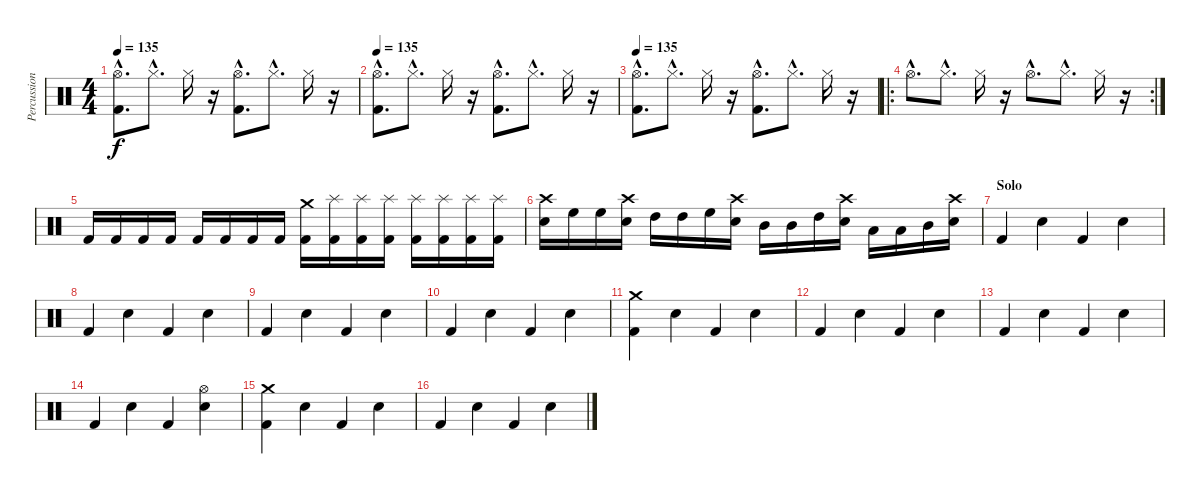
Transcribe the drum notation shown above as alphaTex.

\track ("Percussion" "Percussion") {instrument percussion}
\staff {score}
\articulation defaults
\ts (4 4)
\tempo 135
\clef neutral
\ks c
("Hi-Hat (open)"{hac} "Kick (hit) 2"{hac}).8{d dy f} "Hi-Hat (closed)"{hac}.8{d} "Hi-Hat (closed)".16 r.16 ("Hi-Hat (open)"{hac} "Kick (hit) 2"{hac}).8{d} "Hi-Hat (closed)"{hac}.8{d} "Hi-Hat (closed)".16 r.16 |
\tempo 135
("Hi-Hat (open)"{hac} "Kick (hit) 2"{hac}).8{d} "Hi-Hat (closed)"{hac}.8{d} "Hi-Hat (closed)".16 r.16 ("Hi-Hat (open)"{hac} "Kick (hit) 2"{hac}).8{d} "Hi-Hat (closed)"{hac}.8{d} "Hi-Hat (closed)".16 r.16 |
\tempo 135
("Hi-Hat (open)"{hac} "Kick (hit) 2"{hac}).8{d} "Hi-Hat (closed)"{hac}.8{d} "Hi-Hat (closed)".16 r.16 ("Hi-Hat (open)"{hac} "Kick (hit) 2"{hac}).8{d} "Hi-Hat (closed)"{hac}.8{d} "Hi-Hat (closed)".16 r.16 |
\ro
\rc 2 "Hi-Hat (open)"{hac}.8{d} "Hi-Hat (closed)"{hac}.8{d} "Hi-Hat (closed)".16
r.16 "Hi-Hat (open)"{hac}.8{d} "Hi-Hat (closed)"{hac}.8{d} "Hi-Hat (closed)".16 r.16 |
"Kick (hit) 2".16 "Kick (hit) 2".16 "Kick (hit) 2".16 "Kick (hit) 2".16 "Kick (hit) 2".16 "Kick (hit) 2".16 "Kick (hit) 2".16 "Kick (hit) 2".16 ("Crash medium (hit)" "Kick (hit) 2").16 ("Splash (hit)" "Kick (hit) 2").16 ("Splash (hit)" "Kick (hit) 2").16 ("Splash (hit)" "Kick (hit) 2").16 ("Splash (hit)" "Kick (hit) 2").16 ("Splash (hit)" "Kick (hit) 2").16 ("Splash (hit)" "Kick (hit) 2").16 ("Splash (hit)" "Kick (hit) 2").16 |
("Crash high (hit)" "Electric Snare (hit)").16 "High Floor Tom (hit)".16 "High Floor Tom (hit)".16 ("Crash high (hit)" "Electric Snare (hit)").16 "High Tom (hit)".16 "High Tom (hit)".16 "High Floor Tom (hit)".16 ("Crash high (hit)" "Electric Snare (hit)").16 "Mid Tom (hit)".16 "Mid Tom (hit)".16 "High Tom (hit)".16 ("Crash high (hit)" "Electric Snare (hit)").16 "Low Tom (hit)".16 "Low Tom (hit)".16 "Mid Tom (hit)".16 ("Crash high (hit)" "Electric Snare (hit)").16 |
\section ("" "Solo")
"Kick (hit) 2".4 "Electric Snare (hit)".4 "Kick (hit) 2".4 "Electric Snare (hit)".4 |
"Kick (hit) 2".4 "Electric Snare (hit)".4 "Kick (hit) 2".4 "Electric Snare (hit)".4 |
"Kick (hit) 2".4 "Electric Snare (hit)".4 "Kick (hit) 2".4 "Electric Snare (hit)".4 |
"Kick (hit) 2".4 "Electric Snare (hit)".4 "Kick (hit) 2".4 "Electric Snare (hit)".4 |
("Crash medium (hit)" "Kick (hit) 2").4 "Electric Snare (hit)".4 "Kick (hit) 2".4 "Electric Snare (hit)".4 |
"Kick (hit) 2".4 "Electric Snare (hit)".4 "Kick (hit) 2".4 "Electric Snare (hit)".4 |
"Kick (hit) 2".4 "Electric Snare (hit)".4 "Kick (hit) 2".4 "Electric Snare (hit)".4 |
"Kick (hit) 2".4 "Electric Snare (hit)".4 "Kick (hit) 2".4 ("Hi-Hat (open)" "Electric Snare (hit)").4 |
("Crash medium (hit)" "Kick (hit) 2").4 "Electric Snare (hit)".4 "Kick (hit) 2".4 "Electric Snare (hit)".4 |
"Kick (hit) 2".4 "Electric Snare (hit)".4 "Kick (hit) 2".4 "Electric Snare (hit)".4
